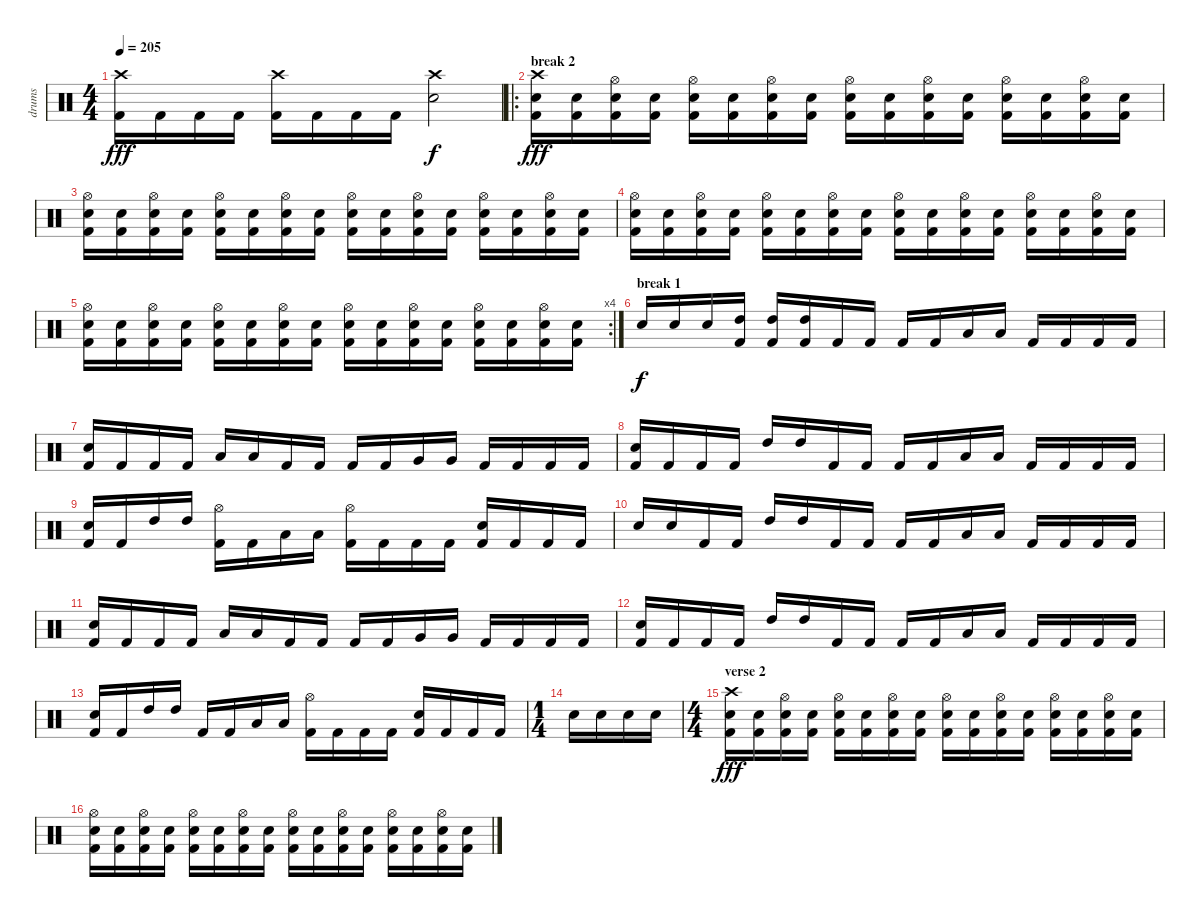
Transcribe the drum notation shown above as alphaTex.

\track ("drums" "drums") {instrument percussion}
\staff {score}
\articulation defaults
\ts (4 4)
\tempo 205
\clef neutral
\ks c
("Crash high (hit)" "Kick (hit) 2").16{dy fff} "Kick (hit) 2".16 "Kick (hit) 2".16 "Kick (hit) 2".16 ("Crash high (hit)" "Kick (hit) 2").16 "Kick (hit) 2".16 "Kick (hit) 2".16 "Kick (hit) 2".16 ("Crash high (hit)" "Electric Snare (hit)").2{dy f} |
\ro
\section ("" "break 2")
("Crash high (hit)" "Electric Snare (hit)" "Kick (hit) 2").16{dy fff} ("Electric Snare (hit)" "Kick (hit) 2").16 ("Hi-Hat (open)" "Electric Snare (hit)" "Kick (hit) 2").16 ("Electric Snare (hit)" "Kick (hit) 2").16 ("Hi-Hat (open)" "Electric Snare (hit)" "Kick (hit) 2").16 ("Electric Snare (hit)" "Kick (hit) 2").16 ("Hi-Hat (open)" "Electric Snare (hit)" "Kick (hit) 2").16 ("Electric Snare (hit)" "Kick (hit) 2").16 ("Hi-Hat (open)" "Electric Snare (hit)" "Kick (hit) 2").16 ("Electric Snare (hit)" "Kick (hit) 2").16 ("Hi-Hat (open)" "Electric Snare (hit)" "Kick (hit) 2").16 ("Electric Snare (hit)" "Kick (hit) 2").16 ("Hi-Hat (open)" "Electric Snare (hit)" "Kick (hit) 2").16 ("Electric Snare (hit)" "Kick (hit) 2").16 ("Hi-Hat (open)" "Electric Snare (hit)" "Kick (hit) 2").16 ("Electric Snare (hit)" "Kick (hit) 2").16 |
("Hi-Hat (open)" "Electric Snare (hit)" "Kick (hit) 2").16 ("Electric Snare (hit)" "Kick (hit) 2").16 ("Hi-Hat (open)" "Electric Snare (hit)" "Kick (hit) 2").16 ("Electric Snare (hit)" "Kick (hit) 2").16 ("Hi-Hat (open)" "Electric Snare (hit)" "Kick (hit) 2").16 ("Electric Snare (hit)" "Kick (hit) 2").16 ("Hi-Hat (open)" "Electric Snare (hit)" "Kick (hit) 2").16 ("Electric Snare (hit)" "Kick (hit) 2").16 ("Hi-Hat (open)" "Electric Snare (hit)" "Kick (hit) 2").16 ("Electric Snare (hit)" "Kick (hit) 2").16 ("Hi-Hat (open)" "Electric Snare (hit)" "Kick (hit) 2").16 ("Electric Snare (hit)" "Kick (hit) 2").16 ("Hi-Hat (open)" "Electric Snare (hit)" "Kick (hit) 2").16 ("Electric Snare (hit)" "Kick (hit) 2").16 ("Hi-Hat (open)" "Electric Snare (hit)" "Kick (hit) 2").16 ("Electric Snare (hit)" "Kick (hit) 2").16 |
("Hi-Hat (open)" "Electric Snare (hit)" "Kick (hit) 2").16 ("Electric Snare (hit)" "Kick (hit) 2").16 ("Hi-Hat (open)" "Electric Snare (hit)" "Kick (hit) 2").16 ("Electric Snare (hit)" "Kick (hit) 2").16 ("Hi-Hat (open)" "Electric Snare (hit)" "Kick (hit) 2").16 ("Electric Snare (hit)" "Kick (hit) 2").16 ("Hi-Hat (open)" "Electric Snare (hit)" "Kick (hit) 2").16 ("Electric Snare (hit)" "Kick (hit) 2").16 ("Hi-Hat (open)" "Electric Snare (hit)" "Kick (hit) 2").16 ("Electric Snare (hit)" "Kick (hit) 2").16 ("Hi-Hat (open)" "Electric Snare (hit)" "Kick (hit) 2").16 ("Electric Snare (hit)" "Kick (hit) 2").16 ("Hi-Hat (open)" "Electric Snare (hit)" "Kick (hit) 2").16 ("Electric Snare (hit)" "Kick (hit) 2").16 ("Hi-Hat (open)" "Electric Snare (hit)" "Kick (hit) 2").16 ("Electric Snare (hit)" "Kick (hit) 2").16 |
\rc 4
("Hi-Hat (open)" "Electric Snare (hit)" "Kick (hit) 2").16 ("Electric Snare (hit)" "Kick (hit) 2").16 ("Hi-Hat (open)" "Electric Snare (hit)" "Kick (hit) 2").16 ("Electric Snare (hit)" "Kick (hit) 2").16 ("Hi-Hat (open)" "Electric Snare (hit)" "Kick (hit) 2").16 ("Electric Snare (hit)" "Kick (hit) 2").16 ("Hi-Hat (open)" "Electric Snare (hit)" "Kick (hit) 2").16 ("Electric Snare (hit)" "Kick (hit) 2").16 ("Hi-Hat (open)" "Electric Snare (hit)" "Kick (hit) 2").16 ("Electric Snare (hit)" "Kick (hit) 2").16 ("Hi-Hat (open)" "Electric Snare (hit)" "Kick (hit) 2").16 ("Electric Snare (hit)" "Kick (hit) 2").16 ("Hi-Hat (open)" "Electric Snare (hit)" "Kick (hit) 2").16 ("Electric Snare (hit)" "Kick (hit) 2").16 ("Hi-Hat (open)" "Electric Snare (hit)" "Kick (hit) 2").16 ("Electric Snare (hit)" "Kick (hit) 2").16 |
\section ("" "break 1")
"Electric Snare (hit)".16{dy f} "Electric Snare (hit)".16 "Electric Snare (hit)".16 ("High Tom (hit)" "Kick (hit) 2").16 ("High Tom (hit)" "Kick (hit) 2").16 ("High Tom (hit)" "Kick (hit) 2").16 "Kick (hit) 2".16 "Kick (hit) 2".16 "Kick (hit) 2".16 "Kick (hit) 2".16 "Low Tom (hit)".16 "Low Tom (hit)".16 "Kick (hit) 2".16 "Kick (hit) 2".16 "Kick (hit) 2".16 "Kick (hit) 2".16 |
("Electric Snare (hit)" "Kick (hit) 2").16 "Kick (hit) 2".16 "Kick (hit) 2".16 "Kick (hit) 2".16 "Low Tom (hit)".16 "Low Tom (hit)".16 "Kick (hit) 2".16 "Kick (hit) 2".16 "Kick (hit) 2".16 "Kick (hit) 2".16 "Very Low Tom (hit)".16 "Very Low Tom (hit)".16 "Kick (hit) 2".16 "Kick (hit) 2".16 "Kick (hit) 2".16 "Kick (hit) 2".16 |
("Electric Snare (hit)" "Kick (hit) 2").16 "Kick (hit) 2".16 "Kick (hit) 2".16 "Kick (hit) 2".16 "High Tom (hit)".16 "High Tom (hit)".16 "Kick (hit) 2".16 "Kick (hit) 2".16 "Kick (hit) 2".16 "Kick (hit) 2".16 "Low Tom (hit)".16 "Low Tom (hit)".16 "Kick (hit) 2".16 "Kick (hit) 2".16 "Kick (hit) 2".16 "Kick (hit) 2".16 |
("Electric Snare (hit)" "Kick (hit) 2").16 "Kick (hit) 2".16 "High Tom (hit)".16 "High Tom (hit)".16 ("Hi-Hat (open)" "Kick (hit) 2").16 "Kick (hit) 2".16 "Low Tom (hit)".16 "Low Tom (hit)".16 ("Hi-Hat (open)" "Kick (hit) 2").16 "Kick (hit) 2".16 "Kick (hit) 2".16 "Kick (hit) 2".16 ("Electric Snare (hit)" "Kick (hit) 2").16 "Kick (hit) 2".16 "Kick (hit) 2".16 "Kick (hit) 2".16 |
"Electric Snare (hit)".16 "Electric Snare (hit)".16 "Kick (hit) 2".16 "Kick (hit) 2".16 "High Tom (hit)".16 "High Tom (hit)".16 "Kick (hit) 2".16 "Kick (hit) 2".16 "Kick (hit) 2".16 "Kick (hit) 2".16 "Low Tom (hit)".16 "Low Tom (hit)".16 "Kick (hit) 2".16 "Kick (hit) 2".16 "Kick (hit) 2".16 "Kick (hit) 2".16 |
("Electric Snare (hit)" "Kick (hit) 2").16 "Kick (hit) 2".16 "Kick (hit) 2".16 "Kick (hit) 2".16 "Low Tom (hit)".16 "Low Tom (hit)".16 "Kick (hit) 2".16 "Kick (hit) 2".16 "Kick (hit) 2".16 "Kick (hit) 2".16 "Very Low Tom (hit)".16 "Very Low Tom (hit)".16 "Kick (hit) 2".16 "Kick (hit) 2".16 "Kick (hit) 2".16 "Kick (hit) 2".16 |
("Electric Snare (hit)" "Kick (hit) 2").16 "Kick (hit) 2".16 "Kick (hit) 2".16 "Kick (hit) 2".16 "High Tom (hit)".16 "High Tom (hit)".16 "Kick (hit) 2".16 "Kick (hit) 2".16 "Kick (hit) 2".16 "Kick (hit) 2".16 "Low Tom (hit)".16 "Low Tom (hit)".16 "Kick (hit) 2".16 "Kick (hit) 2".16 "Kick (hit) 2".16 "Kick (hit) 2".16 |
("Electric Snare (hit)" "Kick (hit) 2").16 "Kick (hit) 2".16 "High Tom (hit)".16 "High Tom (hit)".16 "Kick (hit) 2".16 "Kick (hit) 2".16 "Low Tom (hit)".16 "Low Tom (hit)".16 ("Hi-Hat (open)" "Kick (hit) 2").16 "Kick (hit) 2".16 "Kick (hit) 2".16 "Kick (hit) 2".16 ("Electric Snare (hit)" "Kick (hit) 2").16 "Kick (hit) 2".16 "Kick (hit) 2".16 "Kick (hit) 2".16 |
\ts (1 4)
"Electric Snare (hit)".16 "Electric Snare (hit)".16 "Electric Snare (hit)".16 "Electric Snare (hit)".16 |
\ts (4 4)
\section ("" "verse 2")
("Crash high (hit)" "Electric Snare (hit)" "Kick (hit) 2").16{dy fff} ("Electric Snare (hit)" "Kick (hit) 2").16 ("Hi-Hat (open)" "Electric Snare (hit)" "Kick (hit) 2").16 ("Electric Snare (hit)" "Kick (hit) 2").16 ("Hi-Hat (open)" "Electric Snare (hit)" "Kick (hit) 2").16 ("Electric Snare (hit)" "Kick (hit) 2").16 ("Hi-Hat (open)" "Electric Snare (hit)" "Kick (hit) 2").16 ("Electric Snare (hit)" "Kick (hit) 2").16 ("Hi-Hat (open)" "Electric Snare (hit)" "Kick (hit) 2").16 ("Electric Snare (hit)" "Kick (hit) 2").16 ("Hi-Hat (open)" "Electric Snare (hit)" "Kick (hit) 2").16 ("Electric Snare (hit)" "Kick (hit) 2").16 ("Hi-Hat (open)" "Electric Snare (hit)" "Kick (hit) 2").16 ("Electric Snare (hit)" "Kick (hit) 2").16 ("Hi-Hat (open)" "Electric Snare (hit)" "Kick (hit) 2").16 ("Electric Snare (hit)" "Kick (hit) 2").16 |
("Hi-Hat (open)" "Electric Snare (hit)" "Kick (hit) 2").16 ("Electric Snare (hit)" "Kick (hit) 2").16 ("Hi-Hat (open)" "Electric Snare (hit)" "Kick (hit) 2").16 ("Electric Snare (hit)" "Kick (hit) 2").16 ("Hi-Hat (open)" "Electric Snare (hit)" "Kick (hit) 2").16 ("Electric Snare (hit)" "Kick (hit) 2").16 ("Hi-Hat (open)" "Electric Snare (hit)" "Kick (hit) 2").16 ("Electric Snare (hit)" "Kick (hit) 2").16 ("Hi-Hat (open)" "Electric Snare (hit)" "Kick (hit) 2").16 ("Electric Snare (hit)" "Kick (hit) 2").16 ("Hi-Hat (open)" "Electric Snare (hit)" "Kick (hit) 2").16 ("Electric Snare (hit)" "Kick (hit) 2").16 ("Hi-Hat (open)" "Electric Snare (hit)" "Kick (hit) 2").16 ("Electric Snare (hit)" "Kick (hit) 2").16 ("Hi-Hat (open)" "Electric Snare (hit)" "Kick (hit) 2").16 ("Electric Snare (hit)" "Kick (hit) 2").16
